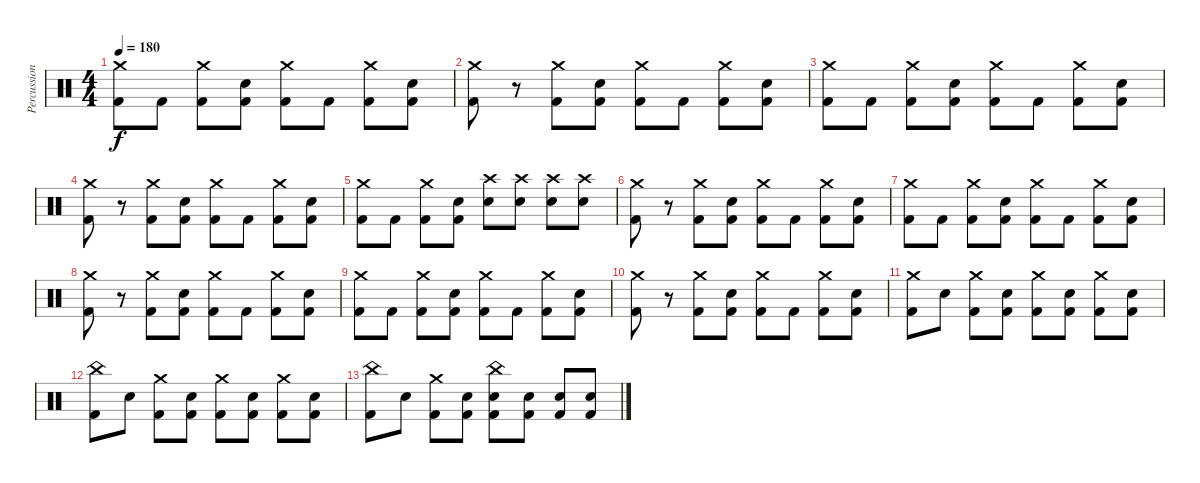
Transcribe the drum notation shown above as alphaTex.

\track ("Percussion" "Percussion") {instrument percussion}
\staff {score}
\articulation defaults
\ts (4 4)
\tempo 180
\clef neutral
\ks c
("Crash medium (hit)" "Kick (hit) 2").8{dy f} "Kick (hit) 2".8 ("Crash medium (hit)" "Kick (hit) 2").8 ("Electric Snare (hit)" "Kick (hit) 2").8 ("Crash medium (hit)" "Kick (hit) 2").8 "Kick (hit) 2".8 ("Crash medium (hit)" "Kick (hit) 2").8 ("Electric Snare (hit)" "Kick (hit) 2").8 |
("Crash medium (hit)" "Kick (hit) 2").8 r.8 ("Crash medium (hit)" "Kick (hit) 2").8 ("Electric Snare (hit)" "Kick (hit) 2").8 ("Crash medium (hit)" "Kick (hit) 2").8 "Kick (hit) 2".8 ("Crash medium (hit)" "Kick (hit) 2").8 ("Electric Snare (hit)" "Kick (hit) 2").8 |
("Crash medium (hit)" "Kick (hit) 2").8 "Kick (hit) 2".8 ("Crash medium (hit)" "Kick (hit) 2").8 ("Electric Snare (hit)" "Kick (hit) 2").8 ("Crash medium (hit)" "Kick (hit) 2").8 "Kick (hit) 2".8 ("Crash medium (hit)" "Kick (hit) 2").8 ("Electric Snare (hit)" "Kick (hit) 2").8 |
("Crash medium (hit)" "Kick (hit) 2").8 r.8 ("Crash medium (hit)" "Kick (hit) 2").8 ("Electric Snare (hit)" "Kick (hit) 2").8 ("Crash medium (hit)" "Kick (hit) 2").8 "Kick (hit) 2".8 ("Crash medium (hit)" "Kick (hit) 2").8 ("Electric Snare (hit)" "Kick (hit) 2").8 |
("Crash medium (hit)" "Kick (hit) 2").8 "Kick (hit) 2".8 ("Crash medium (hit)" "Kick (hit) 2").8 ("Electric Snare (hit)" "Kick (hit) 2").8 ("Crash high (hit)" "Electric Snare (hit)").8 ("Crash high (hit)" "Electric Snare (hit)").8 ("Crash high (hit)" "Electric Snare (hit)").8 ("Crash high (hit)" "Electric Snare (hit)").8 |
("Crash medium (hit)" "Kick (hit) 2").8 r.8 ("Crash medium (hit)" "Kick (hit) 2").8 ("Electric Snare (hit)" "Kick (hit) 2").8 ("Crash medium (hit)" "Kick (hit) 2").8 "Kick (hit) 2".8 ("Crash medium (hit)" "Kick (hit) 2").8 ("Electric Snare (hit)" "Kick (hit) 2").8 |
("Crash medium (hit)" "Kick (hit) 2").8 "Kick (hit) 2".8 ("Crash medium (hit)" "Kick (hit) 2").8 ("Electric Snare (hit)" "Kick (hit) 2").8 ("Crash medium (hit)" "Kick (hit) 2").8 "Kick (hit) 2".8 ("Crash medium (hit)" "Kick (hit) 2").8 ("Electric Snare (hit)" "Kick (hit) 2").8 |
("Crash medium (hit)" "Kick (hit) 2").8 r.8 ("Crash medium (hit)" "Kick (hit) 2").8 ("Electric Snare (hit)" "Kick (hit) 2").8 ("Crash medium (hit)" "Kick (hit) 2").8 "Kick (hit) 2".8 ("Crash medium (hit)" "Kick (hit) 2").8 ("Electric Snare (hit)" "Kick (hit) 2").8 |
("Crash medium (hit)" "Kick (hit) 2").8 "Kick (hit) 2".8 ("Crash medium (hit)" "Kick (hit) 2").8 ("Electric Snare (hit)" "Kick (hit) 2").8 ("Crash medium (hit)" "Kick (hit) 2").8 "Kick (hit) 2".8 ("Crash medium (hit)" "Kick (hit) 2").8 ("Electric Snare (hit)" "Kick (hit) 2").8 |
("Crash medium (hit)" "Kick (hit) 2").8 r.8 ("Crash medium (hit)" "Kick (hit) 2").8 ("Electric Snare (hit)" "Kick (hit) 2").8 ("Crash medium (hit)" "Kick (hit) 2").8 "Kick (hit) 2".8 ("Crash medium (hit)" "Kick (hit) 2").8 ("Electric Snare (hit)" "Kick (hit) 2").8 |
("Crash medium (hit)" "Kick (hit) 2").8 "Electric Snare (hit)".8 ("Crash medium (hit)" "Kick (hit) 2").8 ("Electric Snare (hit)" "Kick (hit) 2").8 ("Crash medium (hit)" "Kick (hit) 2").8 ("Electric Snare (hit)" "Kick (hit) 2").8 ("Crash medium (hit)" "Kick (hit) 2").8 ("Electric Snare (hit)" "Kick (hit) 2").8 |
("China (hit)" "Kick (hit) 2").8 "Electric Snare (hit)".8 ("Crash medium (hit)" "Kick (hit) 2").8 ("Electric Snare (hit)" "Kick (hit) 2").8 ("Crash medium (hit)" "Kick (hit) 2").8 ("Electric Snare (hit)" "Kick (hit) 2").8 ("Crash medium (hit)" "Kick (hit) 2").8 ("Electric Snare (hit)" "Kick (hit) 2").8 |
("China (hit)" "Kick (hit) 2").8 "Electric Snare (hit)".8 ("Crash medium (hit)" "Kick (hit) 2").8 ("Electric Snare (hit)" "Kick (hit) 2").8 ("China (hit)" "Electric Snare (hit)" "Kick (hit) 2").8 ("Electric Snare (hit)" "Kick (hit) 2").8 ("Electric Snare (hit)" "Kick (hit) 2").8 ("Electric Snare (hit)" "Kick (hit) 2").8
